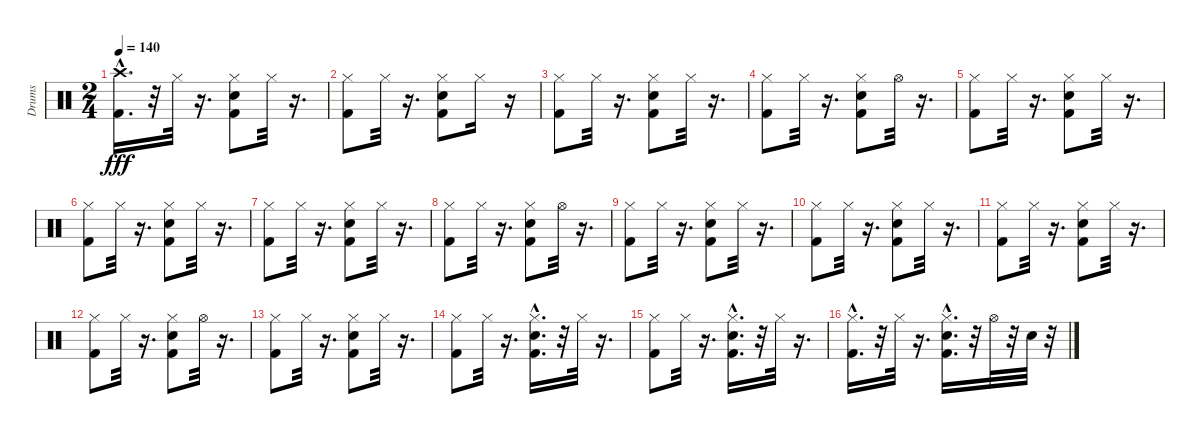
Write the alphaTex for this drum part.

\track ("Drums" "Drums") {instrument percussion}
\staff {score}
\articulation defaults
\ts (2 4)
\tempo 140
\clef neutral
\ks c
("Kick (hit) 2"{hac} "Crash high (hit)").16{d dy fff} r.32 "Hi-Hat (closed)".32 r.16{d} ("Kick (hit) 2" "Snare (hit) 2" "Hi-Hat (closed)").8 "Hi-Hat (closed)".32 r.16{d} |
("Kick (hit) 2" "Hi-Hat (closed)").8 "Hi-Hat (closed)".32 r.16{d} ("Kick (hit) 2" "Hi-Hat (closed)" "Snare (hit) 2").8 "Hi-Hat (closed)".16 r.16 |
("Kick (hit) 2" "Hi-Hat (closed)").8 "Hi-Hat (closed)".32 r.16{d} ("Snare (hit) 2" "Kick (hit) 2" "Hi-Hat (closed)").8 "Hi-Hat (closed)".32 r.16{d} |
("Kick (hit) 2" "Hi-Hat (closed)").8 "Hi-Hat (closed)".32 r.16{d} ("Kick (hit) 2" "Snare (hit) 2" "Hi-Hat (closed)").8 "Hi-Hat (open)".32 r.16{d} |
("Kick (hit) 2" "Hi-Hat (closed)").8 "Hi-Hat (closed)".32 r.16{d} ("Snare (hit) 2" "Kick (hit) 2" "Hi-Hat (closed)").8 "Hi-Hat (closed)".32 r.16{d} |
("Kick (hit) 2" "Hi-Hat (closed)").8 "Hi-Hat (closed)".32 r.16{d} ("Snare (hit) 2" "Kick (hit) 2" "Hi-Hat (closed)").8 "Hi-Hat (closed)".32 r.16{d} |
("Kick (hit) 2" "Hi-Hat (closed)").8 "Hi-Hat (closed)".32 r.16{d} ("Snare (hit) 2" "Kick (hit) 2" "Hi-Hat (closed)").8 "Hi-Hat (closed)".32 r.16{d} |
("Kick (hit) 2" "Hi-Hat (closed)").8 "Hi-Hat (closed)".32 r.16{d} ("Snare (hit) 2" "Kick (hit) 2" "Hi-Hat (closed)").8 "Hi-Hat (open)".32 r.16{d} |
("Kick (hit) 2" "Hi-Hat (closed)").8 "Hi-Hat (closed)".32 r.16{d} ("Snare (hit) 2" "Kick (hit) 2" "Hi-Hat (closed)").8 "Hi-Hat (closed)".32 r.16{d} |
("Kick (hit) 2" "Hi-Hat (closed)").8 "Hi-Hat (closed)".32 r.16{d} ("Snare (hit) 2" "Kick (hit) 2" "Hi-Hat (closed)").8 "Hi-Hat (closed)".32 r.16{d} |
("Kick (hit) 2" "Hi-Hat (closed)").8 "Hi-Hat (closed)".32 r.16{d} ("Snare (hit) 2" "Kick (hit) 2" "Hi-Hat (closed)").8 "Hi-Hat (closed)".32 r.16{d} |
("Kick (hit) 2" "Hi-Hat (closed)").8 "Hi-Hat (closed)".32 r.16{d} ("Hi-Hat (closed)" "Snare (hit) 2" "Kick (hit) 2").8 "Hi-Hat (open)".32 r.16{d} |
("Kick (hit) 2" "Hi-Hat (closed)").8 "Hi-Hat (closed)".32 r.16{d} ("Snare (hit) 2" "Kick (hit) 2" "Hi-Hat (closed)").8 "Hi-Hat (closed)".32 r.16{d} |
("Kick (hit) 2" "Hi-Hat (closed)").8 "Hi-Hat (closed)".32 r.16{d} ("Snare (hit) 2"{hac} "Kick (hit) 2"{hac} "Hi-Hat (closed)").16{d} r.32 "Hi-Hat (closed)".32 r.16{d} |
("Kick (hit) 2" "Hi-Hat (closed)").8 "Hi-Hat (closed)".32 r.16{d} ("Snare (hit) 2"{hac} "Kick (hit) 2"{hac} "Hi-Hat (closed)").16{d} r.32 "Hi-Hat (closed)".32 r.16{d} |
("Kick (hit) 2"{hac} "Hi-Hat (closed)").16{d} r.32 "Hi-Hat (closed)".32 r.16{d} ("Kick (hit) 2"{hac} "Hi-Hat (closed)" "Snare (hit) 2"{hac}).16{d} r.32 "Hi-Hat (open)".32 r.32 "Snare (hit) 2".32 r.32
